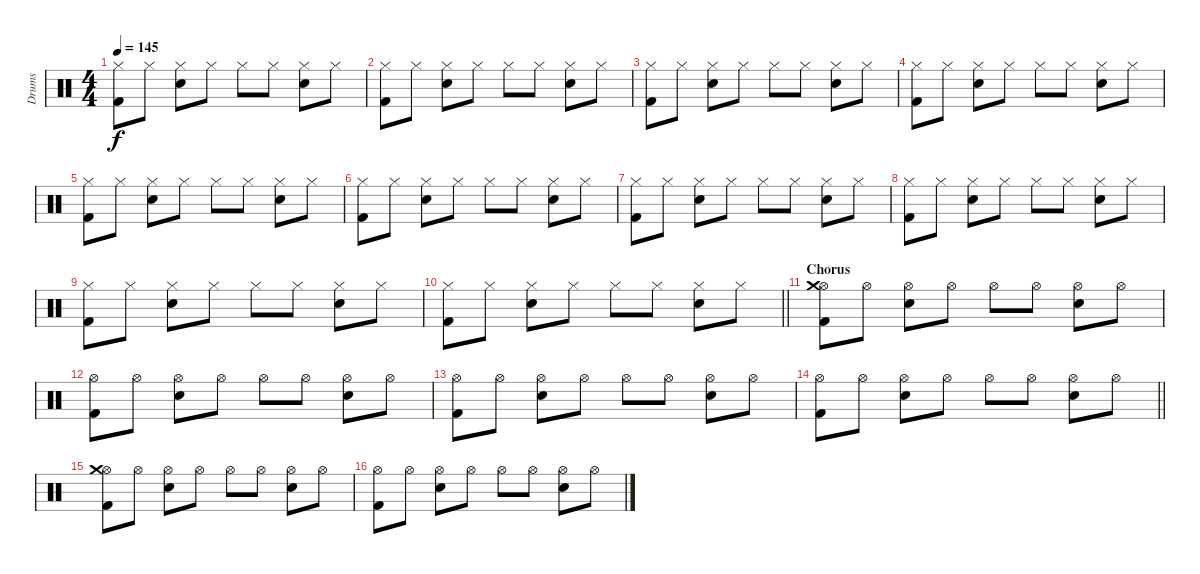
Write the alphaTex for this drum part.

\track ("Drums" "Drums") {instrument percussion}
\staff {score}
\articulation defaults
\ts (4 4)
\tempo 145
\clef neutral
\ks c
("Hi-Hat (closed)" "Kick (hit) 2").8{dy f} "Hi-Hat (closed)".8 ("Hi-Hat (closed)" "Electric Snare (hit)").8 "Hi-Hat (closed)".8 "Hi-Hat (closed)".8 "Hi-Hat (closed)".8 ("Hi-Hat (closed)" "Electric Snare (hit)").8 "Hi-Hat (closed)".8 |
("Hi-Hat (closed)" "Kick (hit) 2").8 "Hi-Hat (closed)".8 ("Hi-Hat (closed)" "Electric Snare (hit)").8 "Hi-Hat (closed)".8 "Hi-Hat (closed)".8 "Hi-Hat (closed)".8 ("Hi-Hat (closed)" "Electric Snare (hit)").8 "Hi-Hat (closed)".8 |
("Hi-Hat (closed)" "Kick (hit) 2").8 "Hi-Hat (closed)".8 ("Hi-Hat (closed)" "Electric Snare (hit)").8 "Hi-Hat (closed)".8 "Hi-Hat (closed)".8 "Hi-Hat (closed)".8 ("Hi-Hat (closed)" "Electric Snare (hit)").8 "Hi-Hat (closed)".8 |
("Hi-Hat (closed)" "Kick (hit) 2").8 "Hi-Hat (closed)".8 ("Hi-Hat (closed)" "Electric Snare (hit)").8 "Hi-Hat (closed)".8 "Hi-Hat (closed)".8 "Hi-Hat (closed)".8 ("Hi-Hat (closed)" "Electric Snare (hit)").8 "Hi-Hat (closed)".8 |
("Hi-Hat (closed)" "Kick (hit) 2").8 "Hi-Hat (closed)".8 ("Hi-Hat (closed)" "Electric Snare (hit)").8 "Hi-Hat (closed)".8 "Hi-Hat (closed)".8 "Hi-Hat (closed)".8 ("Hi-Hat (closed)" "Electric Snare (hit)").8 "Hi-Hat (closed)".8 |
("Hi-Hat (closed)" "Kick (hit) 2").8 "Hi-Hat (closed)".8 ("Hi-Hat (closed)" "Electric Snare (hit)").8 "Hi-Hat (closed)".8 "Hi-Hat (closed)".8 "Hi-Hat (closed)".8 ("Hi-Hat (closed)" "Electric Snare (hit)").8 "Hi-Hat (closed)".8 |
("Hi-Hat (closed)" "Kick (hit) 2").8 "Hi-Hat (closed)".8 ("Hi-Hat (closed)" "Electric Snare (hit)").8 "Hi-Hat (closed)".8 "Hi-Hat (closed)".8 "Hi-Hat (closed)".8 ("Hi-Hat (closed)" "Electric Snare (hit)").8 "Hi-Hat (closed)".8 |
("Hi-Hat (closed)" "Kick (hit) 2").8 "Hi-Hat (closed)".8 ("Hi-Hat (closed)" "Electric Snare (hit)").8 "Hi-Hat (closed)".8 "Hi-Hat (closed)".8 "Hi-Hat (closed)".8 ("Hi-Hat (closed)" "Electric Snare (hit)").8 "Hi-Hat (closed)".8 |
("Hi-Hat (closed)" "Kick (hit) 2").8 "Hi-Hat (closed)".8 ("Hi-Hat (closed)" "Electric Snare (hit)").8 "Hi-Hat (closed)".8 "Hi-Hat (closed)".8 "Hi-Hat (closed)".8 ("Hi-Hat (closed)" "Electric Snare (hit)").8 "Hi-Hat (closed)".8 |
\barLineRight lightlight
("Hi-Hat (closed)" "Kick (hit) 2").8 "Hi-Hat (closed)".8 ("Hi-Hat (closed)" "Electric Snare (hit)").8 "Hi-Hat (closed)".8 "Hi-Hat (closed)".8 "Hi-Hat (closed)".8 ("Hi-Hat (closed)" "Electric Snare (hit)").8 "Hi-Hat (closed)".8 |
\section ("" "Chorus")
("Hi-Hat (open)" "Kick (hit) 2" "Crash medium (hit)").8 "Hi-Hat (open)".8 ("Hi-Hat (open)" "Electric Snare (hit)").8 "Hi-Hat (open)".8 "Hi-Hat (open)".8 "Hi-Hat (open)".8 ("Hi-Hat (open)" "Electric Snare (hit)").8 "Hi-Hat (open)".8 |
("Hi-Hat (open)" "Kick (hit) 2").8 "Hi-Hat (open)".8 ("Hi-Hat (open)" "Electric Snare (hit)").8 "Hi-Hat (open)".8 "Hi-Hat (open)".8 "Hi-Hat (open)".8 ("Hi-Hat (open)" "Electric Snare (hit)").8 "Hi-Hat (open)".8 |
("Hi-Hat (open)" "Kick (hit) 2").8 "Hi-Hat (open)".8 ("Hi-Hat (open)" "Electric Snare (hit)").8 "Hi-Hat (open)".8 "Hi-Hat (open)".8 "Hi-Hat (open)".8 ("Hi-Hat (open)" "Electric Snare (hit)").8 "Hi-Hat (open)".8 |
\barLineRight lightlight
("Hi-Hat (open)" "Kick (hit) 2").8 "Hi-Hat (open)".8 ("Hi-Hat (open)" "Electric Snare (hit)").8 "Hi-Hat (open)".8 "Hi-Hat (open)".8 "Hi-Hat (open)".8 ("Hi-Hat (open)" "Electric Snare (hit)").8 "Hi-Hat (open)".8 |
("Hi-Hat (open)" "Kick (hit) 2" "Crash medium (hit)").8 "Hi-Hat (open)".8 ("Hi-Hat (open)" "Electric Snare (hit)").8 "Hi-Hat (open)".8 "Hi-Hat (open)".8 "Hi-Hat (open)".8 ("Hi-Hat (open)" "Electric Snare (hit)").8 "Hi-Hat (open)".8 |
("Hi-Hat (open)" "Kick (hit) 2").8 "Hi-Hat (open)".8 ("Hi-Hat (open)" "Electric Snare (hit)").8 "Hi-Hat (open)".8 "Hi-Hat (open)".8 "Hi-Hat (open)".8 ("Hi-Hat (open)" "Electric Snare (hit)").8 "Hi-Hat (open)".8
